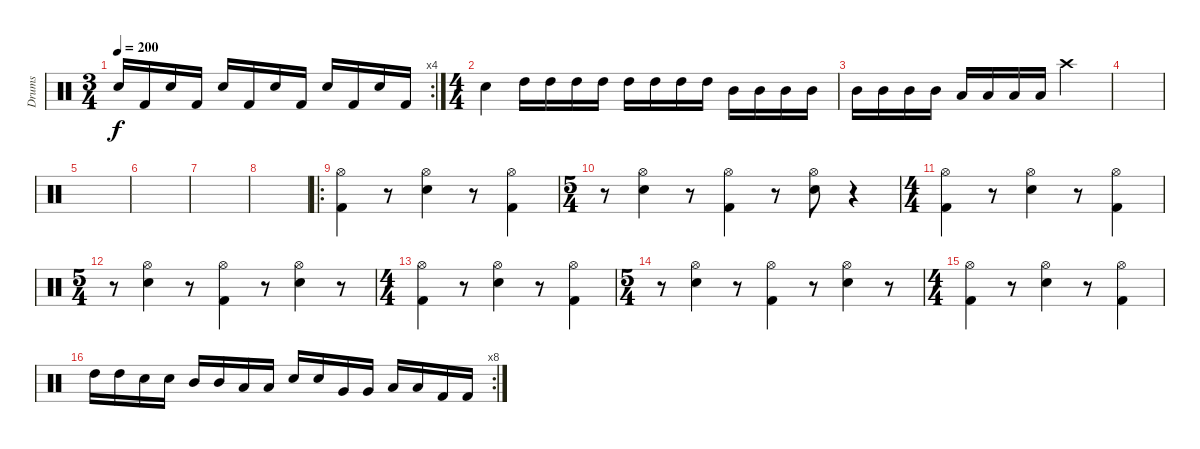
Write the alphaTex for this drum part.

\track ("Drums" "Drums") {instrument percussion}
\staff {score}
\articulation defaults
\rc 4
\ts (3 4)
\tempo 200
\clef neutral
\ks c "Electric Snare (hit)".16{dy f} "Kick (hit) 2".16 "Electric Snare (hit)".16 "Kick (hit) 2".16 "Electric Snare (hit)".16 "Kick (hit) 2".16 "Electric Snare (hit)".16 "Kick (hit) 2".16 "Electric Snare (hit)".16 "Kick (hit) 2".16 "Electric Snare (hit)".16 "Kick (hit) 2".16
|
\ts (4 4)
"Electric Snare (hit)".4 "High Tom (hit)".16 "High Tom (hit)".16 "High Tom (hit)".16 "High Tom (hit)".16 "High Tom (hit)".16 "High Tom (hit)".16 "High Tom (hit)".16 "High Tom (hit)".16 "Mid Tom (hit)".16 "Mid Tom (hit)".16 "Mid Tom (hit)".16 "Mid Tom (hit)".16 |
"Mid Tom (hit)".16 "Mid Tom (hit)".16 "Mid Tom (hit)".16 "Mid Tom (hit)".16 "Low Tom (hit)".16 "Low Tom (hit)".16 "Low Tom (hit)".16 "Low Tom (hit)".16 "Crash high (hit)".2 |
|
|
|
|
|
\ro
("Hi-Hat (open)" "Kick (hit) 2").4 r.8 ("Hi-Hat (open)" "Electric Snare (hit)").4 r.8 ("Hi-Hat (open)" "Kick (hit) 2").4 |
\ts (5 4)
r.8 ("Hi-Hat (open)" "Electric Snare (hit)").4 r.8 ("Hi-Hat (open)" "Kick (hit) 2").4 r.8 ("Hi-Hat (open)" "Electric Snare (hit)").8 r.4 |
\ts (4 4)
("Hi-Hat (open)" "Kick (hit) 2").4 r.8 ("Hi-Hat (open)" "Electric Snare (hit)").4 r.8 ("Hi-Hat (open)" "Kick (hit) 2").4 |
\ts (5 4)
r.8 ("Hi-Hat (open)" "Electric Snare (hit)").4 r.8 ("Hi-Hat (open)" "Kick (hit) 2").4 r.8 ("Hi-Hat (open)" "Electric Snare (hit)").4 r.8 |
\ts (4 4)
("Hi-Hat (open)" "Kick (hit) 2").4 r.8 ("Hi-Hat (open)" "Electric Snare (hit)").4 r.8 ("Hi-Hat (open)" "Kick (hit) 2").4 |
\ts (5 4)
r.8 ("Hi-Hat (open)" "Electric Snare (hit)").4 r.8 ("Hi-Hat (open)" "Kick (hit) 2").4 r.8 ("Hi-Hat (open)" "Electric Snare (hit)").4 r.8 |
\ts (4 4)
("Hi-Hat (open)" "Kick (hit) 2").4 r.8 ("Hi-Hat (open)" "Electric Snare (hit)").4 r.8 ("Hi-Hat (open)" "Kick (hit) 2").4 |
\rc 8 "High Tom (hit)".16 "High Tom (hit)".16 "Electric Snare (hit)".16 "Electric Snare (hit)".16 "Mid Tom (hit)".16 "Mid Tom (hit)".16 "Low Tom (hit)".16 "Low Tom (hit)".16 "Electric Snare (hit)".16 "Electric Snare (hit)".16 "Very Low Tom (hit)".16 "Very Low Tom (hit)".16 "Low Floor Tom (hit)".16 "Low Floor Tom (hit)".16 "Kick (hit) 2".16 "Kick (hit) 2".16
